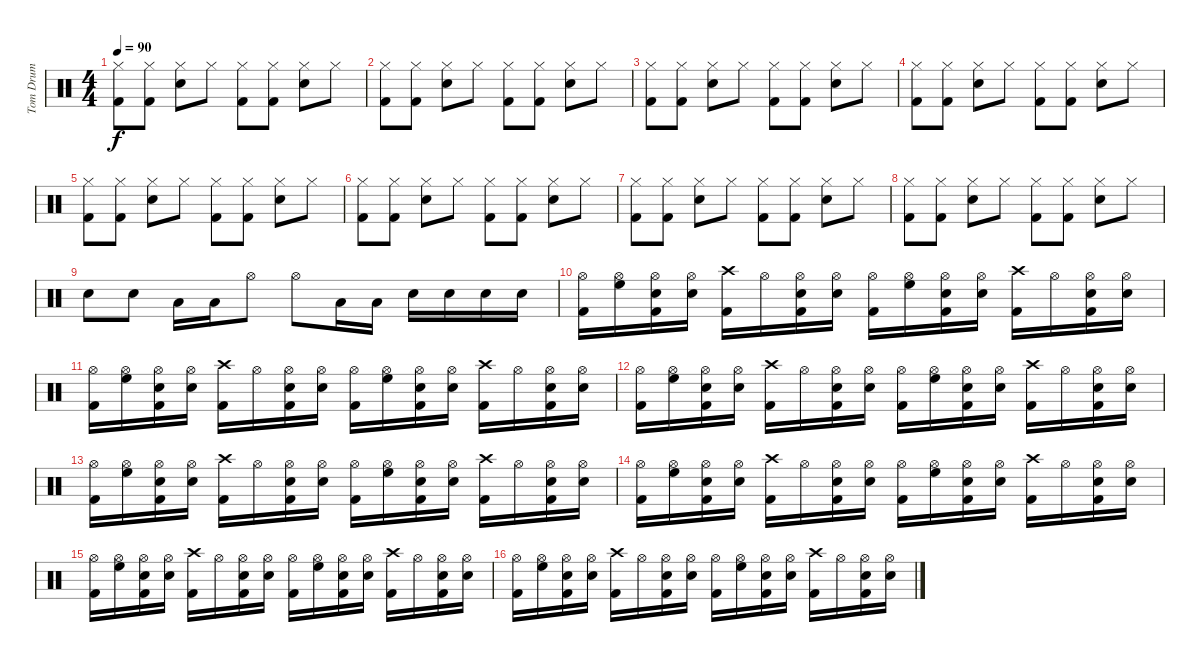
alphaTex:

\track ("Tom Drum" "Tom Drum") {instrument percussion}
\staff {score}
\articulation defaults
\ts (4 4)
\tempo 90
\clef neutral
\ks c
("Hi-Hat (closed)" "Kick (hit) 2").8{dy f} ("Hi-Hat (closed)" "Kick (hit) 2").8 ("Hi-Hat (closed)" "Electric Snare (hit)").8 "Hi-Hat (closed)".8 ("Hi-Hat (closed)" "Kick (hit) 2").8 ("Hi-Hat (closed)" "Kick (hit) 2").8 ("Hi-Hat (closed)" "Electric Snare (hit)").8 "Hi-Hat (closed)".8 |
("Hi-Hat (closed)" "Kick (hit) 2").8 ("Hi-Hat (closed)" "Kick (hit) 2").8 ("Hi-Hat (closed)" "Electric Snare (hit)").8 "Hi-Hat (closed)".8 ("Hi-Hat (closed)" "Kick (hit) 2").8 ("Hi-Hat (closed)" "Kick (hit) 2").8 ("Hi-Hat (closed)" "Electric Snare (hit)").8 "Hi-Hat (closed)".8 |
("Hi-Hat (closed)" "Kick (hit) 2").8 ("Hi-Hat (closed)" "Kick (hit) 2").8 ("Hi-Hat (closed)" "Electric Snare (hit)").8 "Hi-Hat (closed)".8 ("Hi-Hat (closed)" "Kick (hit) 2").8 ("Hi-Hat (closed)" "Kick (hit) 2").8 ("Hi-Hat (closed)" "Electric Snare (hit)").8 "Hi-Hat (closed)".8 |
("Hi-Hat (closed)" "Kick (hit) 2").8 ("Hi-Hat (closed)" "Kick (hit) 2").8 ("Hi-Hat (closed)" "Electric Snare (hit)").8 "Hi-Hat (closed)".8 ("Hi-Hat (closed)" "Kick (hit) 2").8 ("Hi-Hat (closed)" "Kick (hit) 2").8 ("Hi-Hat (closed)" "Electric Snare (hit)").8 "Hi-Hat (closed)".8 |
("Hi-Hat (closed)" "Kick (hit) 2").8 ("Hi-Hat (closed)" "Kick (hit) 2").8 ("Hi-Hat (closed)" "Electric Snare (hit)").8 "Hi-Hat (closed)".8 ("Hi-Hat (closed)" "Kick (hit) 2").8 ("Hi-Hat (closed)" "Kick (hit) 2").8 ("Hi-Hat (closed)" "Electric Snare (hit)").8 "Hi-Hat (closed)".8 |
("Hi-Hat (closed)" "Kick (hit) 2").8 ("Hi-Hat (closed)" "Kick (hit) 2").8 ("Hi-Hat (closed)" "Electric Snare (hit)").8 "Hi-Hat (closed)".8 ("Hi-Hat (closed)" "Kick (hit) 2").8 ("Hi-Hat (closed)" "Kick (hit) 2").8 ("Hi-Hat (closed)" "Electric Snare (hit)").8 "Hi-Hat (closed)".8 |
("Hi-Hat (closed)" "Kick (hit) 2").8 ("Hi-Hat (closed)" "Kick (hit) 2").8 ("Hi-Hat (closed)" "Electric Snare (hit)").8 "Hi-Hat (closed)".8 ("Hi-Hat (closed)" "Kick (hit) 2").8 ("Hi-Hat (closed)" "Kick (hit) 2").8 ("Hi-Hat (closed)" "Electric Snare (hit)").8 "Hi-Hat (closed)".8 |
("Hi-Hat (closed)" "Kick (hit) 2").8 ("Hi-Hat (closed)" "Kick (hit) 2").8 ("Hi-Hat (closed)" "Electric Snare (hit)").8 "Hi-Hat (closed)".8 ("Hi-Hat (closed)" "Kick (hit) 2").8 ("Hi-Hat (closed)" "Kick (hit) 2").8 ("Hi-Hat (closed)" "Electric Snare (hit)").8 "Hi-Hat (closed)".8 |
"Electric Snare (hit)".8 "Electric Snare (hit)".8 "Low Tom (hit)".16 "Low Tom (hit)".16 "Hi-Hat (open)".8 "Hi-Hat (open)".8 "Low Tom (hit)".16 "Low Tom (hit)".16 "Electric Snare (hit)".16 "Electric Snare (hit)".16 "Electric Snare (hit)".16 "Electric Snare (hit)".16 |
("Hi-Hat (open)" "Kick (hit) 2").16 ("Hi-Hat (open)" "High Floor Tom (hit)").16 ("Hi-Hat (open)" "Electric Snare (hit)" "Kick (hit) 2").16 ("Hi-Hat (open)" "Electric Snare (hit)").16 ("Crash high (hit)" "Kick (hit) 2").16 "Hi-Hat (open)".16 ("Hi-Hat (open)" "Electric Snare (hit)" "Kick (hit) 2").16 ("Hi-Hat (open)" "Electric Snare (hit)").16 ("Hi-Hat (open)" "Kick (hit) 2").16 ("Hi-Hat (open)" "High Floor Tom (hit)").16 ("Hi-Hat (open)" "Electric Snare (hit)" "Kick (hit) 2").16 ("Hi-Hat (open)" "Electric Snare (hit)").16 ("Crash high (hit)" "Kick (hit) 2").16 "Hi-Hat (open)".16 ("Hi-Hat (open)" "Electric Snare (hit)" "Kick (hit) 2").16 ("Hi-Hat (open)" "Electric Snare (hit)").16 |
("Hi-Hat (open)" "Kick (hit) 2").16 ("Hi-Hat (open)" "High Floor Tom (hit)").16 ("Hi-Hat (open)" "Electric Snare (hit)" "Kick (hit) 2").16 ("Hi-Hat (open)" "Electric Snare (hit)").16 ("Crash high (hit)" "Kick (hit) 2").16 "Hi-Hat (open)".16 ("Hi-Hat (open)" "Electric Snare (hit)" "Kick (hit) 2").16 ("Hi-Hat (open)" "Electric Snare (hit)").16 ("Hi-Hat (open)" "Kick (hit) 2").16 ("Hi-Hat (open)" "High Floor Tom (hit)").16 ("Hi-Hat (open)" "Electric Snare (hit)" "Kick (hit) 2").16 ("Hi-Hat (open)" "Electric Snare (hit)").16 ("Crash high (hit)" "Kick (hit) 2").16 "Hi-Hat (open)".16 ("Hi-Hat (open)" "Electric Snare (hit)" "Kick (hit) 2").16 ("Hi-Hat (open)" "Electric Snare (hit)").16 |
("Hi-Hat (open)" "Kick (hit) 2").16 ("Hi-Hat (open)" "High Floor Tom (hit)").16 ("Hi-Hat (open)" "Electric Snare (hit)" "Kick (hit) 2").16 ("Hi-Hat (open)" "Electric Snare (hit)").16 ("Crash high (hit)" "Kick (hit) 2").16 "Hi-Hat (open)".16 ("Hi-Hat (open)" "Electric Snare (hit)" "Kick (hit) 2").16 ("Hi-Hat (open)" "Electric Snare (hit)").16 ("Hi-Hat (open)" "Kick (hit) 2").16 ("Hi-Hat (open)" "High Floor Tom (hit)").16 ("Hi-Hat (open)" "Electric Snare (hit)" "Kick (hit) 2").16 ("Hi-Hat (open)" "Electric Snare (hit)").16 ("Crash high (hit)" "Kick (hit) 2").16 "Hi-Hat (open)".16 ("Hi-Hat (open)" "Electric Snare (hit)" "Kick (hit) 2").16 ("Hi-Hat (open)" "Electric Snare (hit)").16 |
("Hi-Hat (open)" "Kick (hit) 2").16 ("Hi-Hat (open)" "High Floor Tom (hit)").16 ("Hi-Hat (open)" "Electric Snare (hit)" "Kick (hit) 2").16 ("Hi-Hat (open)" "Electric Snare (hit)").16 ("Crash high (hit)" "Kick (hit) 2").16 "Hi-Hat (open)".16 ("Hi-Hat (open)" "Electric Snare (hit)" "Kick (hit) 2").16 ("Hi-Hat (open)" "Electric Snare (hit)").16 ("Hi-Hat (open)" "Kick (hit) 2").16 ("Hi-Hat (open)" "High Floor Tom (hit)").16 ("Hi-Hat (open)" "Electric Snare (hit)" "Kick (hit) 2").16 ("Hi-Hat (open)" "Electric Snare (hit)").16 ("Crash high (hit)" "Kick (hit) 2").16 "Hi-Hat (open)".16 ("Hi-Hat (open)" "Electric Snare (hit)" "Kick (hit) 2").16 ("Hi-Hat (open)" "Electric Snare (hit)").16 |
("Hi-Hat (open)" "Kick (hit) 2").16 ("Hi-Hat (open)" "High Floor Tom (hit)").16 ("Hi-Hat (open)" "Electric Snare (hit)" "Kick (hit) 2").16 ("Hi-Hat (open)" "Electric Snare (hit)").16 ("Crash high (hit)" "Kick (hit) 2").16 "Hi-Hat (open)".16 ("Hi-Hat (open)" "Electric Snare (hit)" "Kick (hit) 2").16 ("Hi-Hat (open)" "Electric Snare (hit)").16 ("Hi-Hat (open)" "Kick (hit) 2").16 ("Hi-Hat (open)" "High Floor Tom (hit)").16 ("Hi-Hat (open)" "Electric Snare (hit)" "Kick (hit) 2").16 ("Hi-Hat (open)" "Electric Snare (hit)").16 ("Crash high (hit)" "Kick (hit) 2").16 "Hi-Hat (open)".16 ("Hi-Hat (open)" "Electric Snare (hit)" "Kick (hit) 2").16 ("Hi-Hat (open)" "Electric Snare (hit)").16 |
("Hi-Hat (open)" "Kick (hit) 2").16 ("Hi-Hat (open)" "High Floor Tom (hit)").16 ("Hi-Hat (open)" "Electric Snare (hit)" "Kick (hit) 2").16 ("Hi-Hat (open)" "Electric Snare (hit)").16 ("Crash high (hit)" "Kick (hit) 2").16 "Hi-Hat (open)".16 ("Hi-Hat (open)" "Electric Snare (hit)" "Kick (hit) 2").16 ("Hi-Hat (open)" "Electric Snare (hit)").16 ("Hi-Hat (open)" "Kick (hit) 2").16 ("Hi-Hat (open)" "High Floor Tom (hit)").16 ("Hi-Hat (open)" "Electric Snare (hit)" "Kick (hit) 2").16 ("Hi-Hat (open)" "Electric Snare (hit)").16 ("Crash high (hit)" "Kick (hit) 2").16 "Hi-Hat (open)".16 ("Hi-Hat (open)" "Electric Snare (hit)" "Kick (hit) 2").16 ("Hi-Hat (open)" "Electric Snare (hit)").16 |
("Hi-Hat (open)" "Kick (hit) 2").16 ("Hi-Hat (open)" "High Floor Tom (hit)").16 ("Hi-Hat (open)" "Electric Snare (hit)" "Kick (hit) 2").16 ("Hi-Hat (open)" "Electric Snare (hit)").16 ("Crash high (hit)" "Kick (hit) 2").16 "Hi-Hat (open)".16 ("Hi-Hat (open)" "Electric Snare (hit)" "Kick (hit) 2").16 ("Hi-Hat (open)" "Electric Snare (hit)").16 ("Hi-Hat (open)" "Kick (hit) 2").16 ("Hi-Hat (open)" "High Floor Tom (hit)").16 ("Hi-Hat (open)" "Electric Snare (hit)" "Kick (hit) 2").16 ("Hi-Hat (open)" "Electric Snare (hit)").16 ("Crash high (hit)" "Kick (hit) 2").16 "Hi-Hat (open)".16 ("Hi-Hat (open)" "Electric Snare (hit)" "Kick (hit) 2").16 ("Hi-Hat (open)" "Electric Snare (hit)").16
